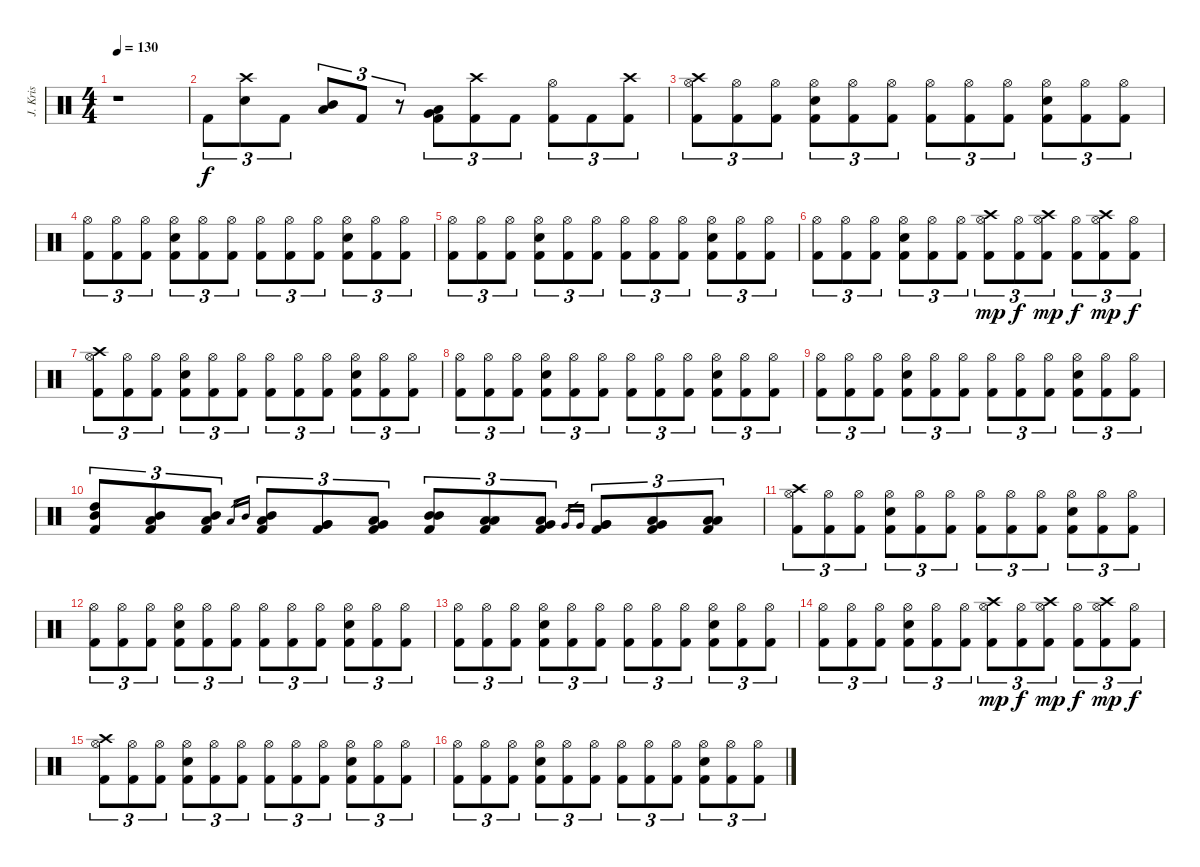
\track ("   J. Kristensson (drums)" "   J. Kris") {instrument percussion}
\staff {score}
\articulation defaults
\ts (4 4)
\tempo 130
\clef neutral
\ks c
r.1{dy f} |
"Kick (hit) 2".8{tu (3 2)} ("Crash high (hit)" "Electric Snare (hit)").8{tu (3 2)} "Kick (hit) 2".8{tu (3 2)} ("Mid Tom (hit)" "Low Tom (hit)").8{tu (3 2)} "Kick (hit) 2".8{tu (3 2)} r.8{tu (3 2)} ("Low Tom (hit)" "Very Low Tom (hit)" "Kick (hit) 2").8{tu (3 2)} ("Crash high (hit)" "Kick (hit) 2").8{tu (3 2)} "Kick (hit) 2".8{tu (3 2)} ("Hi-Hat (open)" "Kick (hit) 2").8{tu (3 2)} "Kick (hit) 2".8{tu (3 2)} ("Crash high (hit)" "Kick (hit) 2").8{tu (3 2)} |
("Hi-Hat (open)" "Crash high (hit)" "Kick (hit) 2").8{tu (3 2)} ("Hi-Hat (open)" "Kick (hit) 2").8{tu (3 2)} ("Hi-Hat (open)" "Kick (hit) 2").8{tu (3 2)} ("Hi-Hat (open)" "Electric Snare (hit)" "Kick (hit) 2").8{tu (3 2)} ("Hi-Hat (open)" "Kick (hit) 2").8{tu (3 2)} ("Hi-Hat (open)" "Kick (hit) 2").8{tu (3 2)} ("Hi-Hat (open)" "Kick (hit) 2").8{tu (3 2)} ("Hi-Hat (open)" "Kick (hit) 2").8{tu (3 2)} ("Hi-Hat (open)" "Kick (hit) 2").8{tu (3 2)} ("Hi-Hat (open)" "Electric Snare (hit)" "Kick (hit) 2").8{tu (3 2)} ("Hi-Hat (open)" "Kick (hit) 2").8{tu (3 2)} ("Hi-Hat (open)" "Kick (hit) 2").8{tu (3 2)} |
("Hi-Hat (open)" "Kick (hit) 2").8{tu (3 2)} ("Hi-Hat (open)" "Kick (hit) 2").8{tu (3 2)} ("Hi-Hat (open)" "Kick (hit) 2").8{tu (3 2)} ("Hi-Hat (open)" "Electric Snare (hit)" "Kick (hit) 2").8{tu (3 2)} ("Hi-Hat (open)" "Kick (hit) 2").8{tu (3 2)} ("Hi-Hat (open)" "Kick (hit) 2").8{tu (3 2)} ("Hi-Hat (open)" "Kick (hit) 2").8{tu (3 2)} ("Hi-Hat (open)" "Kick (hit) 2").8{tu (3 2)} ("Hi-Hat (open)" "Kick (hit) 2").8{tu (3 2)} ("Hi-Hat (open)" "Electric Snare (hit)" "Kick (hit) 2").8{tu (3 2)} ("Hi-Hat (open)" "Kick (hit) 2").8{tu (3 2)} ("Hi-Hat (open)" "Kick (hit) 2").8{tu (3 2)} |
("Hi-Hat (open)" "Kick (hit) 2").8{tu (3 2)} ("Hi-Hat (open)" "Kick (hit) 2").8{tu (3 2)} ("Hi-Hat (open)" "Kick (hit) 2").8{tu (3 2)} ("Hi-Hat (open)" "Electric Snare (hit)" "Kick (hit) 2").8{tu (3 2)} ("Hi-Hat (open)" "Kick (hit) 2").8{tu (3 2)} ("Hi-Hat (open)" "Kick (hit) 2").8{tu (3 2)} ("Hi-Hat (open)" "Kick (hit) 2").8{tu (3 2)} ("Hi-Hat (open)" "Kick (hit) 2").8{tu (3 2)} ("Hi-Hat (open)" "Kick (hit) 2").8{tu (3 2)} ("Hi-Hat (open)" "Electric Snare (hit)" "Kick (hit) 2").8{tu (3 2)} ("Hi-Hat (open)" "Kick (hit) 2").8{tu (3 2)} ("Hi-Hat (open)" "Kick (hit) 2").8{tu (3 2)} |
("Hi-Hat (open)" "Kick (hit) 2").8{tu (3 2)} ("Hi-Hat (open)" "Kick (hit) 2").8{tu (3 2)} ("Hi-Hat (open)" "Kick (hit) 2").8{tu (3 2)} ("Hi-Hat (open)" "Electric Snare (hit)" "Kick (hit) 2").8{tu (3 2)} ("Hi-Hat (open)" "Kick (hit) 2").8{tu (3 2)} ("Hi-Hat (open)" "Kick (hit) 2").8{tu (3 2)} ("Hi-Hat (open)" "Crash high (hit)" "Kick (hit) 2").8{tu (3 2) dy mp} ("Hi-Hat (open)" "Kick (hit) 2").8{tu (3 2) dy f} ("Hi-Hat (open)" "Crash high (hit)" "Kick (hit) 2").8{tu (3 2) dy mp} ("Hi-Hat (open)" "Kick (hit) 2").8{tu (3 2) dy f} ("Hi-Hat (open)" "Crash high (hit)" "Kick (hit) 2").8{tu (3 2) dy mp} ("Hi-Hat (open)" "Kick (hit) 2").8{tu (3 2) dy f} |
("Hi-Hat (open)" "Crash high (hit)" "Kick (hit) 2").8{tu (3 2)} ("Hi-Hat (open)" "Kick (hit) 2").8{tu (3 2)} ("Hi-Hat (open)" "Kick (hit) 2").8{tu (3 2)} ("Hi-Hat (open)" "Electric Snare (hit)" "Kick (hit) 2").8{tu (3 2)} ("Hi-Hat (open)" "Kick (hit) 2").8{tu (3 2)} ("Hi-Hat (open)" "Kick (hit) 2").8{tu (3 2)} ("Hi-Hat (open)" "Kick (hit) 2").8{tu (3 2)} ("Hi-Hat (open)" "Kick (hit) 2").8{tu (3 2)} ("Hi-Hat (open)" "Kick (hit) 2").8{tu (3 2)} ("Hi-Hat (open)" "Electric Snare (hit)" "Kick (hit) 2").8{tu (3 2)} ("Hi-Hat (open)" "Kick (hit) 2").8{tu (3 2)} ("Hi-Hat (open)" "Kick (hit) 2").8{tu (3 2)} |
("Hi-Hat (open)" "Kick (hit) 2").8{tu (3 2)} ("Hi-Hat (open)" "Kick (hit) 2").8{tu (3 2)} ("Hi-Hat (open)" "Kick (hit) 2").8{tu (3 2)} ("Hi-Hat (open)" "Electric Snare (hit)" "Kick (hit) 2").8{tu (3 2)} ("Hi-Hat (open)" "Kick (hit) 2").8{tu (3 2)} ("Hi-Hat (open)" "Kick (hit) 2").8{tu (3 2)} ("Hi-Hat (open)" "Kick (hit) 2").8{tu (3 2)} ("Hi-Hat (open)" "Kick (hit) 2").8{tu (3 2)} ("Hi-Hat (open)" "Kick (hit) 2").8{tu (3 2)} ("Hi-Hat (open)" "Electric Snare (hit)" "Kick (hit) 2").8{tu (3 2)} ("Hi-Hat (open)" "Kick (hit) 2").8{tu (3 2)} ("Hi-Hat (open)" "Kick (hit) 2").8{tu (3 2)} |
("Hi-Hat (open)" "Kick (hit) 2").8{tu (3 2)} ("Hi-Hat (open)" "Kick (hit) 2").8{tu (3 2)} ("Hi-Hat (open)" "Kick (hit) 2").8{tu (3 2)} ("Hi-Hat (open)" "Electric Snare (hit)" "Kick (hit) 2").8{tu (3 2)} ("Hi-Hat (open)" "Kick (hit) 2").8{tu (3 2)} ("Hi-Hat (open)" "Kick (hit) 2").8{tu (3 2)} ("Hi-Hat (open)" "Kick (hit) 2").8{tu (3 2)} ("Hi-Hat (open)" "Kick (hit) 2").8{tu (3 2)} ("Hi-Hat (open)" "Kick (hit) 2").8{tu (3 2)} ("Hi-Hat (open)" "Electric Snare (hit)" "Kick (hit) 2").8{tu (3 2)} ("Hi-Hat (open)" "Kick (hit) 2").8{tu (3 2)} ("Hi-Hat (open)" "Kick (hit) 2").8{tu (3 2)} |
("High Tom (hit)" "Mid Tom (hit)" "Kick (hit) 2").8{tu (3 2)} ("Mid Tom (hit)" "Low Tom (hit)" "Kick (hit) 2").8{tu (3 2)} ("Low Tom (hit)" "Mid Tom (hit)" "Kick (hit) 2").8{tu (3 2)} "Low Tom (hit)".16{gr} "Mid Tom (hit)".16{gr} ("Low Tom (hit)" "Mid Tom (hit)" "Kick (hit) 2").8{tu (3 2)} ("Very Low Tom (hit)" "Very Low Tom (hit)" "Kick (hit) 2").8{tu (3 2)} ("Low Floor Tom (hit)" "Very Low Tom (hit)" "Kick (hit) 2").8{tu (3 2)} ("Mid Tom (hit)" "Mid Tom (hit)" "Kick (hit) 2").8{tu (3 2)} ("Low Tom (hit)" "Low Tom (hit)" "Kick (hit) 2").8{tu (3 2)} ("Very Low Tom (hit)" "Low Tom (hit)" "Kick (hit) 2").8{tu (3 2)} "Very Low Tom (hit)".16{gr} "Very Low Tom (hit)".16{gr} ("Very Low Tom (hit)" "Very Low Tom (hit)" "Kick (hit) 2").8{tu (3 2)} ("Low Floor Tom (hit)" "Very Low Tom (hit)" "Kick (hit) 2").8{tu (3 2)} ("Low Floor Tom (hit)" "Low Floor Tom (hit)" "Kick (hit) 2").8{tu (3 2)} |
("Hi-Hat (open)" "Crash high (hit)" "Kick (hit) 2").8{tu (3 2)} ("Hi-Hat (open)" "Kick (hit) 2").8{tu (3 2)} ("Hi-Hat (open)" "Kick (hit) 2").8{tu (3 2)} ("Hi-Hat (open)" "Electric Snare (hit)" "Kick (hit) 2").8{tu (3 2)} ("Hi-Hat (open)" "Kick (hit) 2").8{tu (3 2)} ("Hi-Hat (open)" "Kick (hit) 2").8{tu (3 2)} ("Hi-Hat (open)" "Kick (hit) 2").8{tu (3 2)} ("Hi-Hat (open)" "Kick (hit) 2").8{tu (3 2)} ("Hi-Hat (open)" "Kick (hit) 2").8{tu (3 2)} ("Hi-Hat (open)" "Electric Snare (hit)" "Kick (hit) 2").8{tu (3 2)} ("Hi-Hat (open)" "Kick (hit) 2").8{tu (3 2)} ("Hi-Hat (open)" "Kick (hit) 2").8{tu (3 2)} |
("Hi-Hat (open)" "Kick (hit) 2").8{tu (3 2)} ("Hi-Hat (open)" "Kick (hit) 2").8{tu (3 2)} ("Hi-Hat (open)" "Kick (hit) 2").8{tu (3 2)} ("Hi-Hat (open)" "Electric Snare (hit)" "Kick (hit) 2").8{tu (3 2)} ("Hi-Hat (open)" "Kick (hit) 2").8{tu (3 2)} ("Hi-Hat (open)" "Kick (hit) 2").8{tu (3 2)} ("Hi-Hat (open)" "Kick (hit) 2").8{tu (3 2)} ("Hi-Hat (open)" "Kick (hit) 2").8{tu (3 2)} ("Hi-Hat (open)" "Kick (hit) 2").8{tu (3 2)} ("Hi-Hat (open)" "Electric Snare (hit)" "Kick (hit) 2").8{tu (3 2)} ("Hi-Hat (open)" "Kick (hit) 2").8{tu (3 2)} ("Hi-Hat (open)" "Kick (hit) 2").8{tu (3 2)} |
("Hi-Hat (open)" "Kick (hit) 2").8{tu (3 2)} ("Hi-Hat (open)" "Kick (hit) 2").8{tu (3 2)} ("Hi-Hat (open)" "Kick (hit) 2").8{tu (3 2)} ("Hi-Hat (open)" "Electric Snare (hit)" "Kick (hit) 2").8{tu (3 2)} ("Hi-Hat (open)" "Kick (hit) 2").8{tu (3 2)} ("Hi-Hat (open)" "Kick (hit) 2").8{tu (3 2)} ("Hi-Hat (open)" "Kick (hit) 2").8{tu (3 2)} ("Hi-Hat (open)" "Kick (hit) 2").8{tu (3 2)} ("Hi-Hat (open)" "Kick (hit) 2").8{tu (3 2)} ("Hi-Hat (open)" "Electric Snare (hit)" "Kick (hit) 2").8{tu (3 2)} ("Hi-Hat (open)" "Kick (hit) 2").8{tu (3 2)} ("Hi-Hat (open)" "Kick (hit) 2").8{tu (3 2)} |
("Hi-Hat (open)" "Kick (hit) 2").8{tu (3 2)} ("Hi-Hat (open)" "Kick (hit) 2").8{tu (3 2)} ("Hi-Hat (open)" "Kick (hit) 2").8{tu (3 2)} ("Hi-Hat (open)" "Electric Snare (hit)" "Kick (hit) 2").8{tu (3 2)} ("Hi-Hat (open)" "Kick (hit) 2").8{tu (3 2)} ("Hi-Hat (open)" "Kick (hit) 2").8{tu (3 2)} ("Hi-Hat (open)" "Crash high (hit)" "Kick (hit) 2").8{tu (3 2) dy mp} ("Hi-Hat (open)" "Kick (hit) 2").8{tu (3 2) dy f} ("Hi-Hat (open)" "Crash high (hit)" "Kick (hit) 2").8{tu (3 2) dy mp} ("Hi-Hat (open)" "Kick (hit) 2").8{tu (3 2) dy f} ("Hi-Hat (open)" "Crash high (hit)" "Kick (hit) 2").8{tu (3 2) dy mp} ("Hi-Hat (open)" "Kick (hit) 2").8{tu (3 2) dy f} |
("Hi-Hat (open)" "Crash high (hit)" "Kick (hit) 2").8{tu (3 2)} ("Hi-Hat (open)" "Kick (hit) 2").8{tu (3 2)} ("Hi-Hat (open)" "Kick (hit) 2").8{tu (3 2)} ("Hi-Hat (open)" "Electric Snare (hit)" "Kick (hit) 2").8{tu (3 2)} ("Hi-Hat (open)" "Kick (hit) 2").8{tu (3 2)} ("Hi-Hat (open)" "Kick (hit) 2").8{tu (3 2)} ("Hi-Hat (open)" "Kick (hit) 2").8{tu (3 2)} ("Hi-Hat (open)" "Kick (hit) 2").8{tu (3 2)} ("Hi-Hat (open)" "Kick (hit) 2").8{tu (3 2)} ("Hi-Hat (open)" "Electric Snare (hit)" "Kick (hit) 2").8{tu (3 2)} ("Hi-Hat (open)" "Kick (hit) 2").8{tu (3 2)} ("Hi-Hat (open)" "Kick (hit) 2").8{tu (3 2)} |
("Hi-Hat (open)" "Kick (hit) 2").8{tu (3 2)} ("Hi-Hat (open)" "Kick (hit) 2").8{tu (3 2)} ("Hi-Hat (open)" "Kick (hit) 2").8{tu (3 2)} ("Hi-Hat (open)" "Electric Snare (hit)" "Kick (hit) 2").8{tu (3 2)} ("Hi-Hat (open)" "Kick (hit) 2").8{tu (3 2)} ("Hi-Hat (open)" "Kick (hit) 2").8{tu (3 2)} ("Hi-Hat (open)" "Kick (hit) 2").8{tu (3 2)} ("Hi-Hat (open)" "Kick (hit) 2").8{tu (3 2)} ("Hi-Hat (open)" "Kick (hit) 2").8{tu (3 2)} ("Hi-Hat (open)" "Electric Snare (hit)" "Kick (hit) 2").8{tu (3 2)} ("Hi-Hat (open)" "Kick (hit) 2").8{tu (3 2)} ("Hi-Hat (open)" "Kick (hit) 2").8{tu (3 2)}
